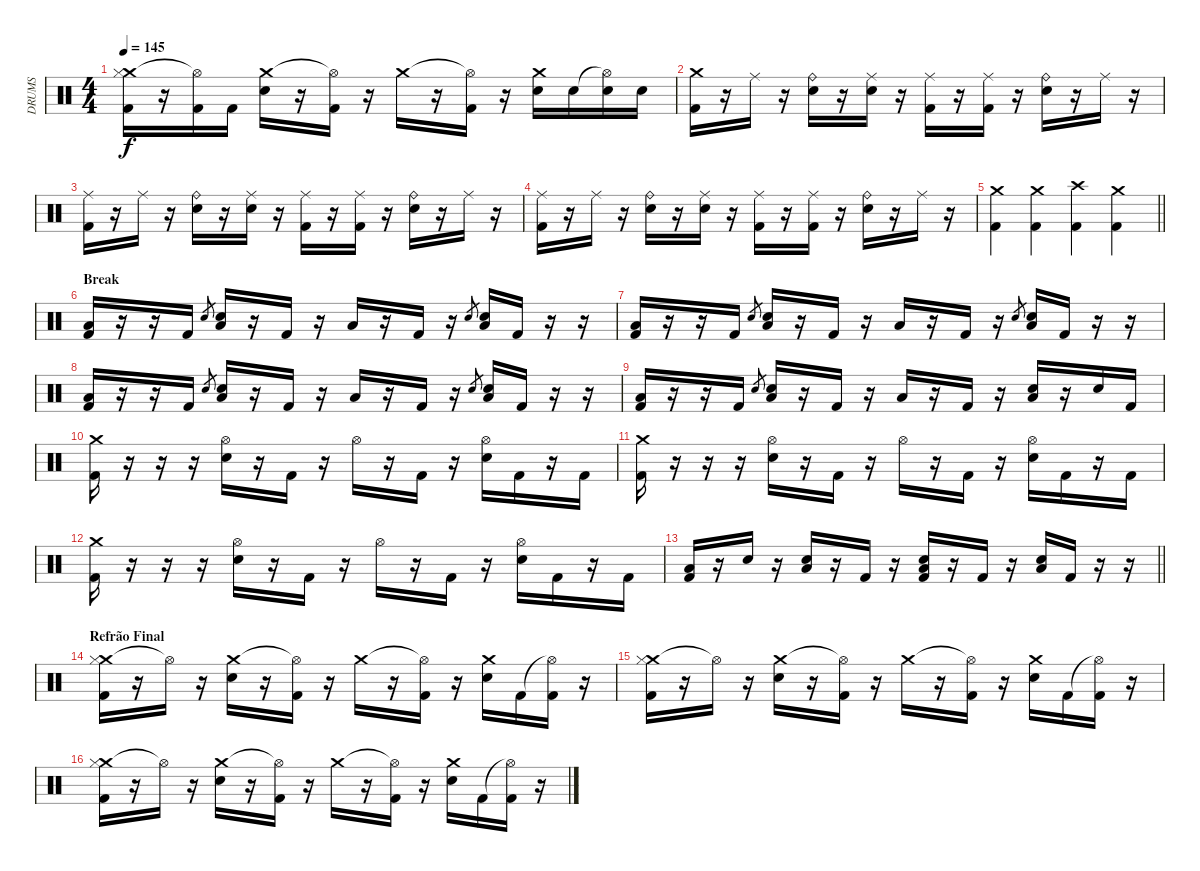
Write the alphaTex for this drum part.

\track ("DRUMS" "DRUMS") {instrument percussion}
\staff {score}
\articulation defaults
\ts (4 4)
\tempo 145
\clef neutral
\ks c
("Crash medium (hit)" "Hi-Hat (closed)" "Kick (hit) 2").16{dy f} r.16 ("Hi-Hat (open)"{t} "Kick (hit) 2").16 "Kick (hit) 2".16 ("Crash medium (hit)" "Electric Snare (hit)").16 r.16 ("Hi-Hat (open)"{t} "Kick (hit) 2").16 r.16 "Crash medium (hit)".16 r.16 ("Hi-Hat (open)"{t} "Kick (hit) 2").16 r.16 ("Crash medium (hit)" "Electric Snare (hit)").16 "Electric Snare (hit)".16 ("Hi-Hat (open)"{t} "Electric Snare (hit)").16 "Electric Snare (hit)".16 |
("Crash medium (hit)" "Kick (hit) 2").16 r.16 "Ride (middle)".16 r.16 ("Ride (bell)" "Electric Snare (hit)").16 r.16 ("Ride (middle)" "Electric Snare (hit)").16 r.16 ("Ride (middle)" "Kick (hit) 2").16 r.16 ("Ride (middle)" "Kick (hit) 2").16 r.16 ("Ride (bell)" "Electric Snare (hit)").16 r.16 "Ride (middle)".16 r.16 |
("Ride (middle)" "Kick (hit) 2").16 r.16 "Ride (middle)".16 r.16 ("Ride (bell)" "Electric Snare (hit)").16 r.16 ("Ride (middle)" "Electric Snare (hit)").16 r.16 ("Ride (middle)" "Kick (hit) 2").16 r.16 ("Ride (middle)" "Kick (hit) 2").16 r.16 ("Ride (bell)" "Electric Snare (hit)").16 r.16 "Ride (middle)".16 r.16 |
("Ride (middle)" "Kick (hit) 2").16 r.16 "Ride (middle)".16 r.16 ("Ride (bell)" "Electric Snare (hit)").16 r.16 ("Ride (middle)" "Electric Snare (hit)").16 r.16 ("Ride (middle)" "Kick (hit) 2").16 r.16 ("Ride (middle)" "Kick (hit) 2").16 r.16 ("Ride (bell)" "Electric Snare (hit)").16 r.16 "Ride (middle)".16 r.16 |
\barLineRight lightlight
("Crash medium (hit)" "Kick (hit) 2").4 ("Crash medium (hit)" "Kick (hit) 2").4 ("Crash high (hit)" "Kick (hit) 2").4 ("Crash medium (hit)" "Kick (hit) 2").4 |
\section ("" "Break")
("Low Tom (hit)" "Kick (hit) 2").16 r.16 r.16 "Kick (hit) 2".16 "Electric Snare (hit)".8{gr} ("Low Tom (hit)" "Electric Snare (hit)").16 r.16 "Kick (hit) 2".16 r.16 "Low Tom (hit)".16 r.16 "Kick (hit) 2".16 r.16 "Electric Snare (hit)".8{gr} ("Low Tom (hit)" "Electric Snare (hit)").16 "Kick (hit) 2".16 r.16 r.16 |
("Low Tom (hit)" "Kick (hit) 2").16 r.16 r.16 "Kick (hit) 2".16 "Electric Snare (hit)".8{gr} ("Low Tom (hit)" "Electric Snare (hit)").16 r.16 "Kick (hit) 2".16 r.16 "Low Tom (hit)".16 r.16 "Kick (hit) 2".16 r.16 "Electric Snare (hit)".8{gr} ("Low Tom (hit)" "Electric Snare (hit)").16 "Kick (hit) 2".16 r.16 r.16 |
("Low Tom (hit)" "Kick (hit) 2").16 r.16 r.16 "Kick (hit) 2".16 "Electric Snare (hit)".8{gr} ("Low Tom (hit)" "Electric Snare (hit)").16 r.16 "Kick (hit) 2".16 r.16 "Low Tom (hit)".16 r.16 "Kick (hit) 2".16 r.16 "Electric Snare (hit)".8{gr} ("Low Tom (hit)" "Electric Snare (hit)").16 "Kick (hit) 2".16 r.16 r.16 |
("Low Tom (hit)" "Kick (hit) 2").16 r.16 r.16 "Kick (hit) 2".16 "Electric Snare (hit)".8{gr} ("Low Tom (hit)" "Electric Snare (hit)").16 r.16 "Kick (hit) 2".16 r.16 "Low Tom (hit)".16 r.16 "Kick (hit) 2".16 r.16 ("Low Tom (hit)" "Electric Snare (hit)").16 r.16 "Electric Snare (hit)".16 "Kick (hit) 2".16 |
("Crash medium (hit)" "Kick (hit) 2").16 r.16 r.16 r.16 ("Hi-Hat (open)" "Electric Snare (hit)").16 r.16 "Kick (hit) 2".16 r.16 "Hi-Hat (open)".16 r.16 "Kick (hit) 2".16 r.16 ("Hi-Hat (open)" "Electric Snare (hit)").16 "Kick (hit) 2".16 r.16 "Kick (hit) 2".16 |
("Crash medium (hit)" "Kick (hit) 2").16 r.16 r.16 r.16 ("Hi-Hat (open)" "Electric Snare (hit)").16 r.16 "Kick (hit) 2".16 r.16 "Hi-Hat (open)".16 r.16 "Kick (hit) 2".16 r.16 ("Hi-Hat (open)" "Electric Snare (hit)").16 "Kick (hit) 2".16 r.16 "Kick (hit) 2".16 |
("Crash medium (hit)" "Kick (hit) 2").16 r.16 r.16 r.16 ("Hi-Hat (open)" "Electric Snare (hit)").16 r.16 "Kick (hit) 2".16 r.16 "Hi-Hat (open)".16 r.16 "Kick (hit) 2".16 r.16 ("Hi-Hat (open)" "Electric Snare (hit)").16 "Kick (hit) 2".16 r.16 "Kick (hit) 2".16 |
\barLineRight lightlight
("Low Tom (hit)" "Kick (hit) 2").16 r.16 "Electric Snare (hit)".16 r.16 ("Low Tom (hit)" "Electric Snare (hit)").16 r.16 "Kick (hit) 2".16 r.16 ("Low Tom (hit)" "Electric Snare (hit)" "Kick (hit) 2").16 r.16 "Kick (hit) 2".16 r.16 ("Low Tom (hit)" "Electric Snare (hit)").16 "Kick (hit) 2".16 r.16 r.16 |
\section ("" "Refrão Final")
("Crash medium (hit)" "Hi-Hat (closed)" "Kick (hit) 2").16 r.16 "Hi-Hat (open)"{t}.16 r.16 ("Crash medium (hit)" "Electric Snare (hit)").16 r.16 ("Hi-Hat (open)"{t} "Kick (hit) 2").16 r.16 "Crash medium (hit)".16 r.16 ("Hi-Hat (open)"{t} "Kick (hit) 2").16 r.16 ("Crash medium (hit)" "Electric Snare (hit)").16 "Kick (hit) 2".16 ("Hi-Hat (open)"{t} "Kick (hit) 2").16 r.16 |
("Crash medium (hit)" "Hi-Hat (closed)" "Kick (hit) 2").16 r.16 "Hi-Hat (open)"{t}.16 r.16 ("Crash medium (hit)" "Electric Snare (hit)").16 r.16 ("Hi-Hat (open)"{t} "Kick (hit) 2").16 r.16 "Crash medium (hit)".16 r.16 ("Hi-Hat (open)"{t} "Kick (hit) 2").16 r.16 ("Crash medium (hit)" "Electric Snare (hit)").16 "Kick (hit) 2".16 ("Hi-Hat (open)"{t} "Kick (hit) 2").16 r.16 |
("Crash medium (hit)" "Hi-Hat (closed)" "Kick (hit) 2").16 r.16 "Hi-Hat (open)"{t}.16 r.16 ("Crash medium (hit)" "Electric Snare (hit)").16 r.16 ("Hi-Hat (open)"{t} "Kick (hit) 2").16 r.16 "Crash medium (hit)".16 r.16 ("Hi-Hat (open)"{t} "Kick (hit) 2").16 r.16 ("Crash medium (hit)" "Electric Snare (hit)").16 "Kick (hit) 2".16 ("Hi-Hat (open)"{t} "Kick (hit) 2").16 r.16
